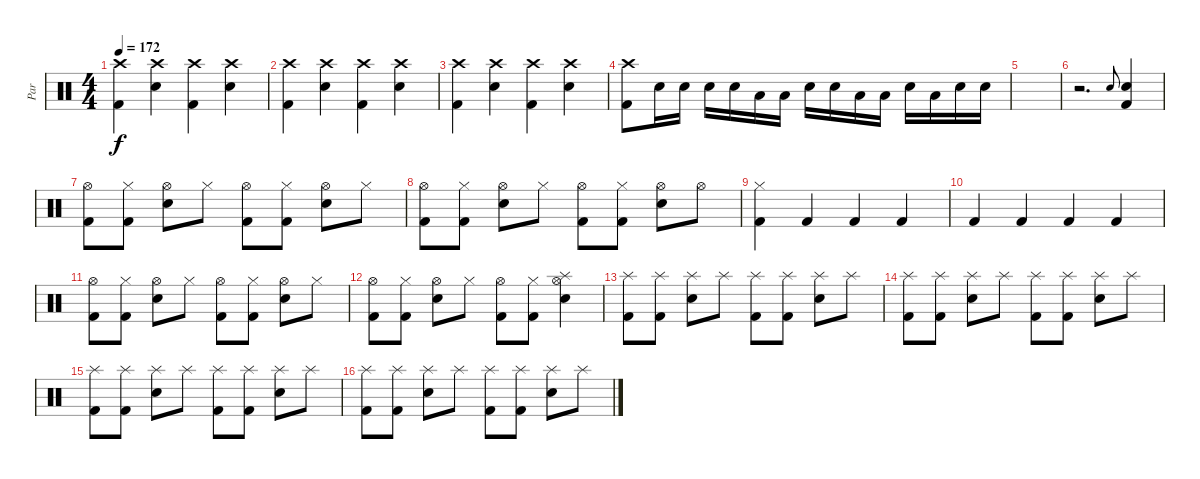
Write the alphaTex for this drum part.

\track ("Par" "Par") {instrument percussion}
\staff {score}
\articulation defaults
\ts (4 4)
\tempo 172
\clef neutral
\ks c
("Crash high (hit)" "Kick (hit) 2").4{dy f} ("Crash high (hit)" "Snare (hit) 2").4 ("Crash high (hit)" "Kick (hit) 2").4 ("Crash high (hit)" "Snare (hit) 2").4 |
("Crash high (hit)" "Kick (hit) 2").4 ("Crash high (hit)" "Snare (hit) 2").4 ("Crash high (hit)" "Kick (hit) 2").4 ("Crash high (hit)" "Snare (hit) 2").4 |
("Crash high (hit)" "Kick (hit) 2").4 ("Crash high (hit)" "Snare (hit) 2").4 ("Crash high (hit)" "Kick (hit) 2").4 ("Crash high (hit)" "Snare (hit) 2").4 |
("Crash high (hit)" "Kick (hit) 2").8 "Snare (hit) 2".16 "Snare (hit) 2".16 "Snare (hit) 2".16 "Snare (hit) 2".16 "Low Floor Tom (hit)".16 "Low Floor Tom (hit)".16 "Snare (hit) 2".16 "Snare (hit) 2".16 "Low Floor Tom (hit)".16 "Low Floor Tom (hit)".16 "Snare (hit) 2".16 "Low Floor Tom (hit)".16 "Snare (hit) 2".16 "Snare (hit) 2".16 |
|
r.2{d} "Snare (hit) 2".8{gr onbeat} ("Snare (hit) 2" "Kick (hit) 2").4 |
("Hi-Hat (open)" "Kick (hit) 2").8 ("Hi-Hat (closed)" "Kick (hit) 2").8 ("Hi-Hat (open)" "Snare (hit) 2").8 "Hi-Hat (closed)".8 ("Hi-Hat (open)" "Kick (hit) 2").8 ("Hi-Hat (closed)" "Kick (hit) 2").8 ("Hi-Hat (open)" "Snare (hit) 2").8 "Hi-Hat (closed)".8 |
("Hi-Hat (open)" "Kick (hit) 2").8 ("Hi-Hat (closed)" "Kick (hit) 2").8 ("Hi-Hat (open)" "Snare (hit) 2").8 "Hi-Hat (closed)".8 ("Hi-Hat (open)" "Kick (hit) 2").8 ("Hi-Hat (closed)" "Kick (hit) 2").8 ("Hi-Hat (open)" "Snare (hit) 2").8 "Hi-Hat (open)".8 |
("Hi-Hat (closed)" "Kick (hit) 2").4 "Kick (hit) 2".4 "Kick (hit) 2".4 "Kick (hit) 2".4 |
"Kick (hit) 2".4 "Kick (hit) 2".4 "Kick (hit) 2".4 "Kick (hit) 2".4 |
("Hi-Hat (open)" "Kick (hit) 2").8 ("Hi-Hat (closed)" "Kick (hit) 2").8 ("Hi-Hat (open)" "Snare (hit) 2").8 "Hi-Hat (closed)".8 ("Hi-Hat (open)" "Kick (hit) 2").8 ("Hi-Hat (closed)" "Kick (hit) 2").8 ("Hi-Hat (open)" "Snare (hit) 2").8 "Hi-Hat (closed)".8 |
("Hi-Hat (open)" "Kick (hit) 2").8 ("Hi-Hat (closed)" "Kick (hit) 2").8 ("Hi-Hat (open)" "Snare (hit) 2").8 "Hi-Hat (closed)".8 ("Hi-Hat (open)" "Kick (hit) 2").8 ("Hi-Hat (closed)" "Kick (hit) 2").8 ("Hi-Hat (open)" "Splash (hit)" "Snare (hit) 2").4 |
("Splash (hit)" "Kick (hit) 2").8 ("Splash (hit)" "Kick (hit) 2").8 ("Splash (hit)" "Snare (hit) 2").8 "Splash (hit)".8 ("Splash (hit)" "Kick (hit) 2").8 ("Splash (hit)" "Kick (hit) 2").8 ("Splash (hit)" "Snare (hit) 2").8 "Splash (hit)".8 |
("Splash (hit)" "Kick (hit) 2").8 ("Splash (hit)" "Kick (hit) 2").8 ("Splash (hit)" "Snare (hit) 2").8 "Splash (hit)".8 ("Splash (hit)" "Kick (hit) 2").8 ("Splash (hit)" "Kick (hit) 2").8 ("Splash (hit)" "Snare (hit) 2").8 "Splash (hit)".8 |
("Splash (hit)" "Kick (hit) 2").8 ("Splash (hit)" "Kick (hit) 2").8 ("Splash (hit)" "Snare (hit) 2").8 "Splash (hit)".8 ("Splash (hit)" "Kick (hit) 2").8 ("Splash (hit)" "Kick (hit) 2").8 ("Splash (hit)" "Snare (hit) 2").8 "Splash (hit)".8 |
("Splash (hit)" "Kick (hit) 2").8 ("Splash (hit)" "Kick (hit) 2").8 ("Splash (hit)" "Snare (hit) 2").8 "Splash (hit)".8 ("Splash (hit)" "Kick (hit) 2").8 ("Splash (hit)" "Kick (hit) 2").8 ("Splash (hit)" "Snare (hit) 2").8 "Splash (hit)".8
